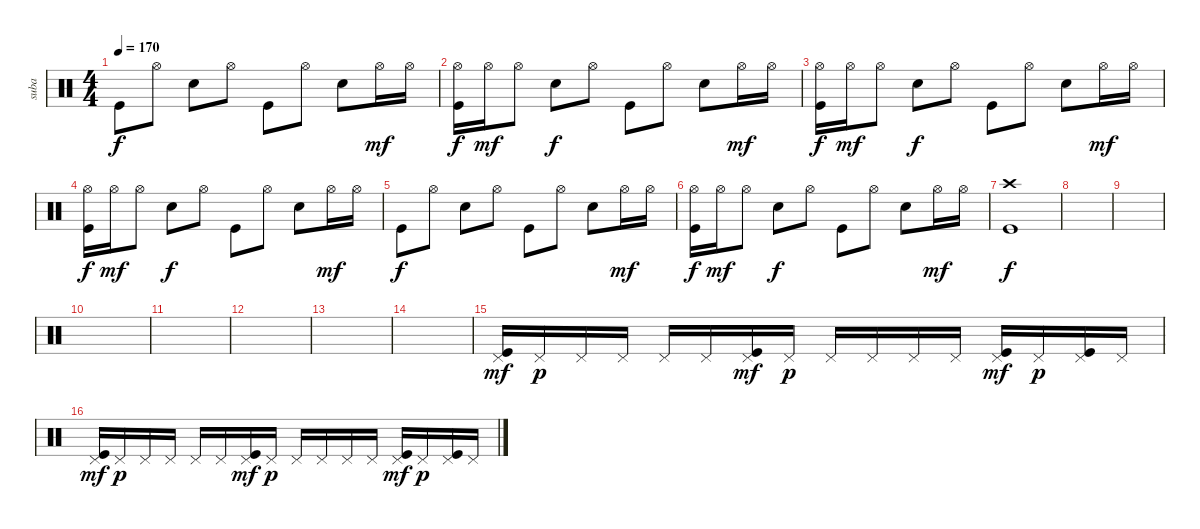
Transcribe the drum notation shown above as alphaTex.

\track ("suba" "suba") {instrument percussion}
\staff {score}
\articulation defaults
\ts (4 4)
\tempo 170
\clef neutral
\ks c "Kick (hit)".8{dy f} "Hi-Hat (open)".8 "Electric Snare (hit)".8 "Hi-Hat (open)".8 "Kick (hit)".8 "Hi-Hat (open)".8 "Electric Snare (hit)".8 "Hi-Hat (open)".16{dy mf} "Hi-Hat (open)".16
|
("Hi-Hat (open)" "Kick (hit)").16{dy f} "Hi-Hat (open)".16{dy mf} "Hi-Hat (open)".8 "Electric Snare (hit)".8{dy f} "Hi-Hat (open)".8 "Kick (hit)".8 "Hi-Hat (open)".8 "Electric Snare (hit)".8 "Hi-Hat (open)".16{dy mf} "Hi-Hat (open)".16 |
("Hi-Hat (open)" "Kick (hit)").16{dy f} "Hi-Hat (open)".16{dy mf} "Hi-Hat (open)".8 "Electric Snare (hit)".8{dy f} "Hi-Hat (open)".8 "Kick (hit)".8 "Hi-Hat (open)".8 "Electric Snare (hit)".8 "Hi-Hat (open)".16{dy mf} "Hi-Hat (open)".16 |
("Hi-Hat (open)" "Kick (hit)").16{dy f} "Hi-Hat (open)".16{dy mf} "Hi-Hat (open)".8 "Electric Snare (hit)".8{dy f} "Hi-Hat (open)".8 "Kick (hit)".8 "Hi-Hat (open)".8 "Electric Snare (hit)".8 "Hi-Hat (open)".16{dy mf} "Hi-Hat (open)".16 |
"Kick (hit)".8{dy f} "Hi-Hat (open)".8 "Electric Snare (hit)".8 "Hi-Hat (open)".8 "Kick (hit)".8 "Hi-Hat (open)".8 "Electric Snare (hit)".8 "Hi-Hat (open)".16{dy mf} "Hi-Hat (open)".16 |
("Hi-Hat (open)" "Kick (hit)").16{dy f} "Hi-Hat (open)".16{dy mf} "Hi-Hat (open)".8 "Electric Snare (hit)".8{dy f} "Hi-Hat (open)".8 "Kick (hit)".8 "Hi-Hat (open)".8 "Electric Snare (hit)".8 "Hi-Hat (open)".16{dy mf} "Hi-Hat (open)".16 |
("Crash high (hit)" "Kick (hit)").1{dy f} |
|
|
|
|
|
|
|
("Pedal Hi-Hat (hit)" "Kick (hit)").16{dy mf} "Pedal Hi-Hat (hit)".16{dy p} "Pedal Hi-Hat (hit)".16 "Pedal Hi-Hat (hit)".16 "Pedal Hi-Hat (hit)".16 "Pedal Hi-Hat (hit)".16 ("Pedal Hi-Hat (hit)" "Kick (hit)").16{dy mf} "Pedal Hi-Hat (hit)".16{dy p} "Pedal Hi-Hat (hit)".16 "Pedal Hi-Hat (hit)".16 "Pedal Hi-Hat (hit)".16 "Pedal Hi-Hat (hit)".16 ("Pedal Hi-Hat (hit)" "Kick (hit)").16{dy mf} "Pedal Hi-Hat (hit)".16{dy p} ("Pedal Hi-Hat (hit)" "Kick (hit)").16 "Pedal Hi-Hat (hit)".16 |
("Pedal Hi-Hat (hit)" "Kick (hit)").16{dy mf} "Pedal Hi-Hat (hit)".16{dy p} "Pedal Hi-Hat (hit)".16 "Pedal Hi-Hat (hit)".16 "Pedal Hi-Hat (hit)".16 "Pedal Hi-Hat (hit)".16 ("Pedal Hi-Hat (hit)" "Kick (hit)").16{dy mf} "Pedal Hi-Hat (hit)".16{dy p} "Pedal Hi-Hat (hit)".16 "Pedal Hi-Hat (hit)".16 "Pedal Hi-Hat (hit)".16 "Pedal Hi-Hat (hit)".16 ("Pedal Hi-Hat (hit)" "Kick (hit)").16{dy mf} "Pedal Hi-Hat (hit)".16{dy p} ("Pedal Hi-Hat (hit)" "Kick (hit)").16 "Pedal Hi-Hat (hit)".16
